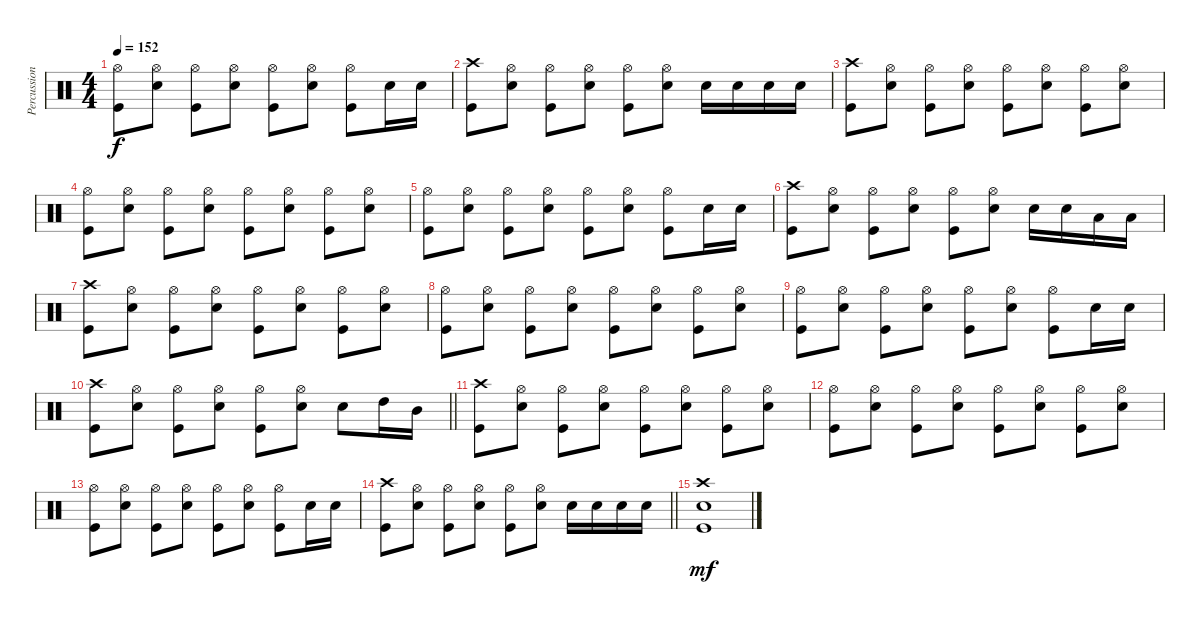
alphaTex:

\track ("Percussion" "Percussion") {instrument percussion}
\staff {score}
\articulation defaults
\ts (4 4)
\tempo 152
\clef neutral
\ks c
("Hi-Hat (open)" "Kick (hit)").8{dy f} ("Hi-Hat (open)" "Snare (hit) 2").8 ("Hi-Hat (open)" "Kick (hit)").8 ("Hi-Hat (open)" "Snare (hit) 2").8 ("Hi-Hat (open)" "Kick (hit)").8 ("Hi-Hat (open)" "Snare (hit) 2").8 ("Hi-Hat (open)" "Kick (hit)").8 "Snare (hit) 2".16 "Snare (hit) 2".16 |
("Crash high (hit)" "Kick (hit)").8 ("Hi-Hat (open)" "Snare (hit) 2").8 ("Hi-Hat (open)" "Kick (hit)").8 ("Hi-Hat (open)" "Snare (hit) 2").8 ("Hi-Hat (open)" "Kick (hit)").8 ("Hi-Hat (open)" "Snare (hit) 2").8 "Snare (hit) 2".16 "Snare (hit) 2".16 "Snare (hit) 2".16 "Snare (hit) 2".16 |
("Crash high (hit)" "Kick (hit)").8 ("Hi-Hat (open)" "Snare (hit) 2").8 ("Hi-Hat (open)" "Kick (hit)").8 ("Hi-Hat (open)" "Snare (hit) 2").8 ("Hi-Hat (open)" "Kick (hit)").8 ("Hi-Hat (open)" "Snare (hit) 2").8 ("Hi-Hat (open)" "Kick (hit)").8 ("Hi-Hat (open)" "Snare (hit) 2").8 |
("Hi-Hat (open)" "Kick (hit)").8 ("Hi-Hat (open)" "Snare (hit) 2").8 ("Hi-Hat (open)" "Kick (hit)").8 ("Hi-Hat (open)" "Snare (hit) 2").8 ("Hi-Hat (open)" "Kick (hit)").8 ("Hi-Hat (open)" "Snare (hit) 2").8 ("Hi-Hat (open)" "Kick (hit)").8 ("Hi-Hat (open)" "Snare (hit) 2").8 |
("Hi-Hat (open)" "Kick (hit)").8 ("Hi-Hat (open)" "Snare (hit) 2").8 ("Hi-Hat (open)" "Kick (hit)").8 ("Hi-Hat (open)" "Snare (hit) 2").8 ("Hi-Hat (open)" "Kick (hit)").8 ("Hi-Hat (open)" "Snare (hit) 2").8 ("Hi-Hat (open)" "Kick (hit)").8 "Snare (hit) 2".16 "Snare (hit) 2".16 |
("Crash high (hit)" "Kick (hit)").8 ("Hi-Hat (open)" "Snare (hit) 2").8 ("Hi-Hat (open)" "Kick (hit)").8 ("Hi-Hat (open)" "Snare (hit) 2").8 ("Hi-Hat (open)" "Kick (hit)").8 ("Hi-Hat (open)" "Snare (hit) 2").8 "Snare (hit) 2".16 "Snare (hit) 2".16 "Low Tom (hit)".16 "Low Tom (hit)".16 |
("Crash high (hit)" "Kick (hit)").8 ("Hi-Hat (open)" "Snare (hit) 2").8 ("Hi-Hat (open)" "Kick (hit)").8 ("Hi-Hat (open)" "Snare (hit) 2").8 ("Hi-Hat (open)" "Kick (hit)").8 ("Hi-Hat (open)" "Snare (hit) 2").8 ("Hi-Hat (open)" "Kick (hit)").8 ("Hi-Hat (open)" "Snare (hit) 2").8 |
("Hi-Hat (open)" "Kick (hit)").8 ("Hi-Hat (open)" "Snare (hit) 2").8 ("Hi-Hat (open)" "Kick (hit)").8 ("Hi-Hat (open)" "Snare (hit) 2").8 ("Hi-Hat (open)" "Kick (hit)").8 ("Hi-Hat (open)" "Snare (hit) 2").8 ("Hi-Hat (open)" "Kick (hit)").8 ("Hi-Hat (open)" "Snare (hit) 2").8 |
("Hi-Hat (open)" "Kick (hit)").8 ("Hi-Hat (open)" "Snare (hit) 2").8 ("Hi-Hat (open)" "Kick (hit)").8 ("Hi-Hat (open)" "Snare (hit) 2").8 ("Hi-Hat (open)" "Kick (hit)").8 ("Hi-Hat (open)" "Snare (hit) 2").8 ("Hi-Hat (open)" "Kick (hit)").8 "Snare (hit) 2".16 "Snare (hit) 2".16 |
\barLineRight lightlight
("Crash high (hit)" "Kick (hit)").8 ("Hi-Hat (open)" "Snare (hit) 2").8 ("Hi-Hat (open)" "Kick (hit)").8 ("Hi-Hat (open)" "Snare (hit) 2").8 ("Hi-Hat (open)" "Kick (hit)").8 ("Hi-Hat (open)" "Snare (hit) 2").8 "Snare (hit) 2".8 "High Tom (hit)".16 "Mid Tom (hit)".16 |
("Crash high (hit)" "Kick (hit)").8 ("Hi-Hat (open)" "Snare (hit) 2").8 ("Hi-Hat (open)" "Kick (hit)").8 ("Hi-Hat (open)" "Snare (hit) 2").8 ("Hi-Hat (open)" "Kick (hit)").8 ("Hi-Hat (open)" "Snare (hit) 2").8 ("Hi-Hat (open)" "Kick (hit)").8 ("Hi-Hat (open)" "Snare (hit) 2").8 |
("Hi-Hat (open)" "Kick (hit)").8 ("Hi-Hat (open)" "Snare (hit) 2").8 ("Hi-Hat (open)" "Kick (hit)").8 ("Hi-Hat (open)" "Snare (hit) 2").8 ("Hi-Hat (open)" "Kick (hit)").8 ("Hi-Hat (open)" "Snare (hit) 2").8 ("Hi-Hat (open)" "Kick (hit)").8 ("Hi-Hat (open)" "Snare (hit) 2").8 |
("Hi-Hat (open)" "Kick (hit)").8 ("Hi-Hat (open)" "Snare (hit) 2").8 ("Hi-Hat (open)" "Kick (hit)").8 ("Hi-Hat (open)" "Snare (hit) 2").8 ("Hi-Hat (open)" "Kick (hit)").8 ("Hi-Hat (open)" "Snare (hit) 2").8 ("Hi-Hat (open)" "Kick (hit)").8 "Snare (hit) 2".16 "Snare (hit) 2".16 |
\barLineRight lightlight
("Crash high (hit)" "Kick (hit)").8 ("Hi-Hat (open)" "Snare (hit) 2").8 ("Hi-Hat (open)" "Kick (hit)").8 ("Hi-Hat (open)" "Snare (hit) 2").8 ("Hi-Hat (open)" "Kick (hit)").8 ("Hi-Hat (open)" "Snare (hit) 2").8 "Snare (hit) 2".16 "Snare (hit) 2".16 "Snare (hit) 2".16 "Snare (hit) 2".16 |
("Crash high (hit)" "Snare (hit) 2" "Kick (hit)").1{dy mf}
